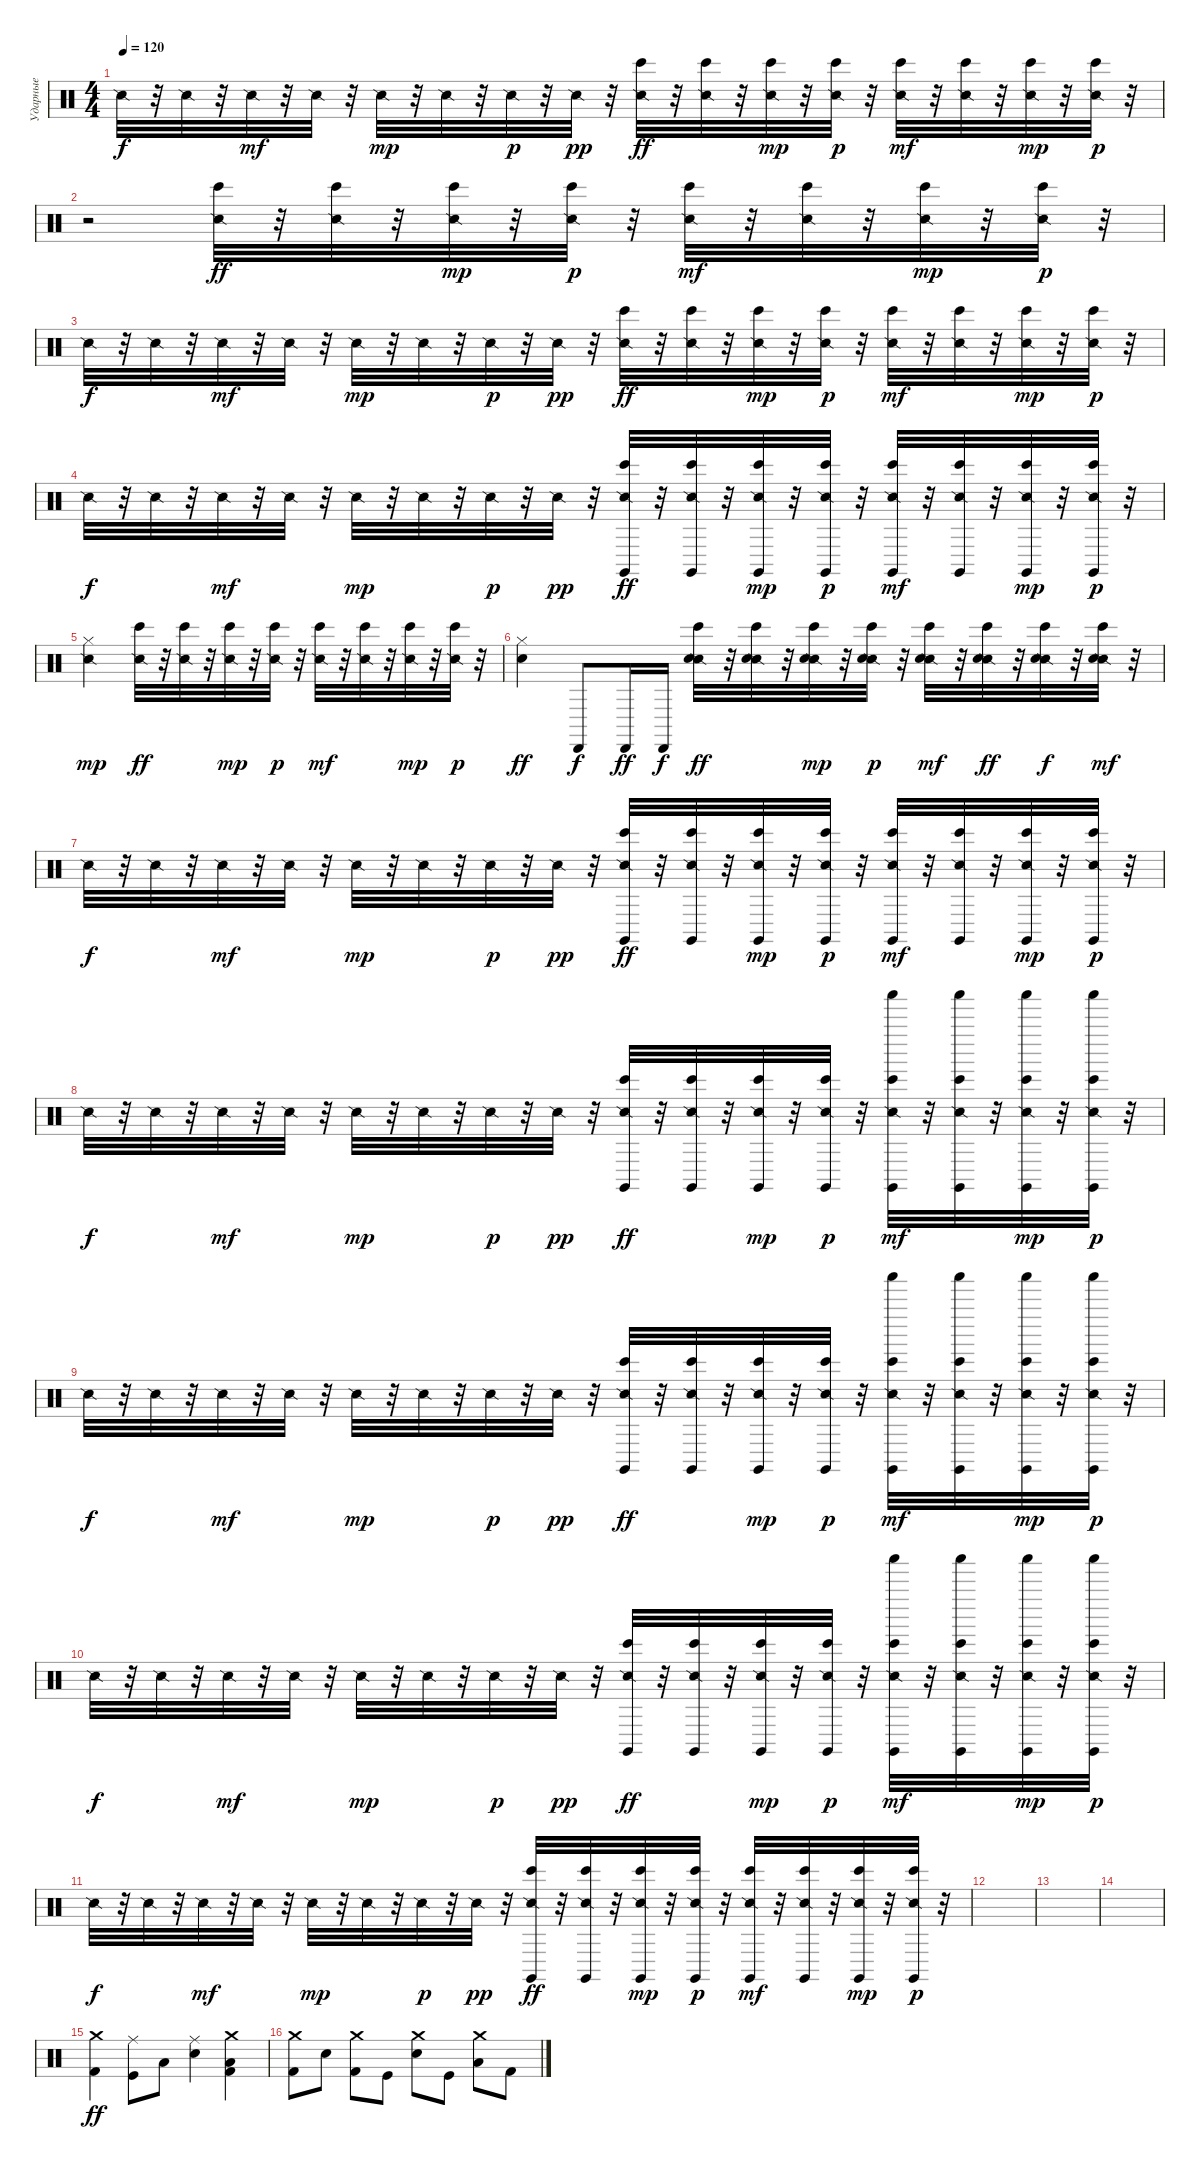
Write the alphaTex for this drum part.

\track ("Ударные" "Ударные") {instrument percussion}
\staff {score}
\articulation defaults
\ts (4 4)
\tempo 120
\clef neutral
\ks c "Snare (side stick) 2".32{dy f}
r.32 "Snare (side stick) 2".32 r.32 "Snare (side stick) 2".32{dy mf} r.32 "Snare (side stick) 2".32 r.32 "Snare (side stick) 2".32{dy mp} r.32 "Snare (side stick) 2".32 r.32 "Snare (side stick) 2".32{dy p} r.32 "Snare (side stick) 2".32{dy pp} r.32 ("Snare (side stick) 2" "Bongo High (hit)").32{dy ff} r.32 ("Snare (side stick) 2" "Bongo High (hit)").32 r.32 ("Snare (side stick) 2" "Bongo High (hit)").32{dy mp} r.32 ("Snare (side stick) 2" "Bongo High (hit)").32{dy p} r.32 ("Snare (side stick) 2" "Bongo High (hit)").32{dy mf} r.32 ("Snare (side stick) 2" "Bongo High (hit)").32 r.32 ("Snare (side stick) 2" "Bongo High (hit)").32{dy mp} r.32 ("Snare (side stick) 2" "Bongo High (hit)").32{dy p} r.32 |
r.2 ("Snare (side stick) 2" "Bongo High (hit)").32{dy ff} r.32 ("Snare (side stick) 2" "Bongo High (hit)").32 r.32 ("Snare (side stick) 2" "Bongo High (hit)").32{dy mp} r.32 ("Snare (side stick) 2" "Bongo High (hit)").32{dy p} r.32 ("Snare (side stick) 2" "Bongo High (hit)").32{dy mf} r.32 ("Snare (side stick) 2" "Bongo High (hit)").32 r.32 ("Snare (side stick) 2" "Bongo High (hit)").32{dy mp} r.32 ("Snare (side stick) 2" "Bongo High (hit)").32{dy p} r.32 |
"Snare (side stick) 2".32{dy f} r.32 "Snare (side stick) 2".32 r.32 "Snare (side stick) 2".32{dy mf} r.32 "Snare (side stick) 2".32 r.32 "Snare (side stick) 2".32{dy mp} r.32 "Snare (side stick) 2".32 r.32 "Snare (side stick) 2".32{dy p} r.32 "Snare (side stick) 2".32{dy pp} r.32 ("Snare (side stick) 2" "Bongo High (hit)").32{dy ff} r.32 ("Snare (side stick) 2" "Bongo High (hit)").32 r.32 ("Snare (side stick) 2" "Bongo High (hit)").32{dy mp} r.32 ("Snare (side stick) 2" "Bongo High (hit)").32{dy p} r.32 ("Snare (side stick) 2" "Bongo High (hit)").32{dy mf} r.32 ("Snare (side stick) 2" "Bongo High (hit)").32 r.32 ("Snare (side stick) 2" "Bongo High (hit)").32{dy mp} r.32 ("Snare (side stick) 2" "Bongo High (hit)").32{dy p} r.32 |
"Snare (side stick) 2".32{dy f} r.32 "Snare (side stick) 2".32 r.32 "Snare (side stick) 2".32{dy mf} r.32 "Snare (side stick) 2".32 r.32 "Snare (side stick) 2".32{dy mp} r.32 "Snare (side stick) 2".32 r.32 "Snare (side stick) 2".32{dy p} r.32 "Snare (side stick) 2".32{dy pp} r.32 ("Claves (hit)" "Snare (side stick) 2" "Bongo High (hit)").32{dy ff} r.32 ("Claves (hit)" "Snare (side stick) 2" "Bongo High (hit)").32 r.32 ("Claves (hit)" "Snare (side stick) 2" "Bongo High (hit)").32{dy mp} r.32 ("Claves (hit)" "Snare (side stick) 2" "Bongo High (hit)").32{dy p} r.32 ("Claves (hit)" "Snare (side stick) 2" "Bongo High (hit)").32{dy mf} r.32 ("Claves (hit)" "Snare (side stick) 2" "Bongo High (hit)").32 r.32 ("Claves (hit)" "Snare (side stick) 2" "Bongo High (hit)").32{dy mp} r.32 ("Claves (hit)" "Snare (side stick) 2" "Bongo High (hit)").32{dy p} r.32 |
("Snare (side stick) 2" "Hi-Hat (closed)").2{dy mp} ("Snare (side stick) 2" "Bongo High (hit)").32{dy ff} r.32 ("Snare (side stick) 2" "Bongo High (hit)").32 r.32 ("Snare (side stick) 2" "Bongo High (hit)").32{dy mp} r.32 ("Snare (side stick) 2" "Bongo High (hit)").32{dy p} r.32 ("Snare (side stick) 2" "Bongo High (hit)").32{dy mf} r.32 ("Snare (side stick) 2" "Bongo High (hit)").32 r.32 ("Snare (side stick) 2" "Bongo High (hit)").32{dy mp} r.32 ("Snare (side stick) 2" "Bongo High (hit)").32{dy p} r.32 |
("Snare (hit)" "Hi-Hat (closed)").4{dy ff} "Cabasa (hit)".8{dy f} "Cabasa (hit)".16{dy ff} "Cabasa (hit)".16{dy f} ("Snare (side stick) 2" "Bongo High (hit)" "Hand Clap (hit)").32{dy ff} r.32 ("Snare (side stick) 2" "Bongo High (hit)" "Hand Clap (hit)").32 r.32 ("Snare (side stick) 2" "Bongo High (hit)" "Hand Clap (hit)").32{dy mp} r.32 ("Snare (side stick) 2" "Bongo High (hit)" "Hand Clap (hit)").32{dy p} r.32 ("Snare (side stick) 2" "Bongo High (hit)" "Hand Clap (hit)").32{dy mf} r.32 ("Snare (side stick) 2" "Bongo High (hit)" "Hand Clap (hit)").32{dy ff} r.32 ("Snare (side stick) 2" "Bongo High (hit)" "Hand Clap (hit)").32{dy f} r.32 ("Snare (side stick) 2" "Bongo High (hit)" "Hand Clap (hit)").32{dy mf} r.32 |
"Snare (side stick) 2".32{dy f} r.32 "Snare (side stick) 2".32 r.32 "Snare (side stick) 2".32{dy mf} r.32 "Snare (side stick) 2".32 r.32 "Snare (side stick) 2".32{dy mp} r.32 "Snare (side stick) 2".32 r.32 "Snare (side stick) 2".32{dy p} r.32 "Snare (side stick) 2".32{dy pp} r.32 ("Claves (hit)" "Snare (side stick) 2" "Bongo High (hit)").32{dy ff} r.32 ("Claves (hit)" "Snare (side stick) 2" "Bongo High (hit)").32 r.32 ("Claves (hit)" "Snare (side stick) 2" "Bongo High (hit)").32{dy mp} r.32 ("Claves (hit)" "Snare (side stick) 2" "Bongo High (hit)").32{dy p} r.32 ("Claves (hit)" "Snare (side stick) 2" "Bongo High (hit)").32{dy mf} r.32 ("Claves (hit)" "Snare (side stick) 2" "Bongo High (hit)").32 r.32 ("Claves (hit)" "Snare (side stick) 2" "Bongo High (hit)").32{dy mp} r.32 ("Claves (hit)" "Snare (side stick) 2" "Bongo High (hit)").32{dy p} r.32 |
"Snare (side stick) 2".32{dy f} r.32 "Snare (side stick) 2".32 r.32 "Snare (side stick) 2".32{dy mf} r.32 "Snare (side stick) 2".32 r.32 "Snare (side stick) 2".32{dy mp} r.32 "Snare (side stick) 2".32 r.32 "Snare (side stick) 2".32{dy p} r.32 "Snare (side stick) 2".32{dy pp} r.32 ("Claves (hit)" "Snare (side stick) 2" "Bongo High (hit)").32{dy ff} r.32 ("Claves (hit)" "Snare (side stick) 2" "Bongo High (hit)").32 r.32 ("Claves (hit)" "Snare (side stick) 2" "Bongo High (hit)").32{dy mp} r.32 ("Claves (hit)" "Snare (side stick) 2" "Bongo High (hit)").32{dy p} r.32 ("Shaker (hit)" "Claves (hit)" "Snare (side stick) 2" "Bongo High (hit)").32{dy mf} r.32 ("Shaker (hit)" "Claves (hit)" "Snare (side stick) 2" "Bongo High (hit)").32 r.32 ("Shaker (hit)" "Claves (hit)" "Snare (side stick) 2" "Bongo High (hit)").32{dy mp} r.32 ("Shaker (hit)" "Claves (hit)" "Snare (side stick) 2" "Bongo High (hit)").32{dy p} r.32 |
"Snare (side stick) 2".32{dy f} r.32 "Snare (side stick) 2".32 r.32 "Snare (side stick) 2".32{dy mf} r.32 "Snare (side stick) 2".32 r.32 "Snare (side stick) 2".32{dy mp} r.32 "Snare (side stick) 2".32 r.32 "Snare (side stick) 2".32{dy p} r.32 "Snare (side stick) 2".32{dy pp} r.32 ("Claves (hit)" "Snare (side stick) 2" "Bongo High (hit)").32{dy ff} r.32 ("Claves (hit)" "Snare (side stick) 2" "Bongo High (hit)").32 r.32 ("Claves (hit)" "Snare (side stick) 2" "Bongo High (hit)").32{dy mp} r.32 ("Claves (hit)" "Snare (side stick) 2" "Bongo High (hit)").32{dy p} r.32 ("Shaker (hit)" "Claves (hit)" "Snare (side stick) 2" "Bongo High (hit)").32{dy mf} r.32 ("Shaker (hit)" "Claves (hit)" "Snare (side stick) 2" "Bongo High (hit)").32 r.32 ("Shaker (hit)" "Claves (hit)" "Snare (side stick) 2" "Bongo High (hit)").32{dy mp} r.32 ("Shaker (hit)" "Claves (hit)" "Snare (side stick) 2" "Bongo High (hit)").32{dy p} r.32 |
"Snare (side stick) 2".32{dy f} r.32 "Snare (side stick) 2".32 r.32 "Snare (side stick) 2".32{dy mf} r.32 "Snare (side stick) 2".32 r.32 "Snare (side stick) 2".32{dy mp} r.32 "Snare (side stick) 2".32 r.32 "Snare (side stick) 2".32{dy p} r.32 "Snare (side stick) 2".32{dy pp} r.32 ("Claves (hit)" "Snare (side stick) 2" "Bongo High (hit)").32{dy ff} r.32 ("Claves (hit)" "Snare (side stick) 2" "Bongo High (hit)").32 r.32 ("Claves (hit)" "Snare (side stick) 2" "Bongo High (hit)").32{dy mp} r.32 ("Claves (hit)" "Snare (side stick) 2" "Bongo High (hit)").32{dy p} r.32 ("Shaker (hit)" "Claves (hit)" "Snare (side stick) 2" "Bongo High (hit)").32{dy mf} r.32 ("Shaker (hit)" "Claves (hit)" "Snare (side stick) 2" "Bongo High (hit)").32 r.32 ("Shaker (hit)" "Claves (hit)" "Snare (side stick) 2" "Bongo High (hit)").32{dy mp} r.32 ("Shaker (hit)" "Claves (hit)" "Snare (side stick) 2" "Bongo High (hit)").32{dy p} r.32 |
"Snare (side stick) 2".32{dy f} r.32 "Snare (side stick) 2".32 r.32 "Snare (side stick) 2".32{dy mf} r.32 "Snare (side stick) 2".32 r.32 "Snare (side stick) 2".32{dy mp} r.32 "Snare (side stick) 2".32 r.32 "Snare (side stick) 2".32{dy p} r.32 "Snare (side stick) 2".32{dy pp} r.32 ("Claves (hit)" "Snare (side stick) 2" "Bongo High (hit)").32{dy ff} r.32 ("Claves (hit)" "Snare (side stick) 2" "Bongo High (hit)").32 r.32 ("Claves (hit)" "Snare (side stick) 2" "Bongo High (hit)").32{dy mp} r.32 ("Claves (hit)" "Snare (side stick) 2" "Bongo High (hit)").32{dy p} r.32 ("Claves (hit)" "Snare (side stick) 2" "Bongo High (hit)").32{dy mf} r.32 ("Claves (hit)" "Snare (side stick) 2" "Bongo High (hit)").32 r.32 ("Claves (hit)" "Snare (side stick) 2" "Bongo High (hit)").32{dy mp} r.32 ("Claves (hit)" "Snare (side stick) 2" "Bongo High (hit)").32{dy p} r.32 |
|
|
|
("Crash medium (hit)" "Kick (hit) 2").4{dy ff} ("Ride (middle)" "Kick (hit)").8 "Low Floor Tom (hit)".8 ("Ride (middle)" "Snare (hit) 2").4 ("Crash medium (hit)" "Kick (hit) 2" "Low Floor Tom (hit)").4 |
("Crash medium (hit)" "Kick (hit) 2").8 "Snare (hit) 2".8 ("Crash medium (hit)" "Kick (hit) 2").8 "Kick (hit)".8 ("Crash medium (hit)" "Snare (hit) 2").8 "Kick (hit)".8 ("Crash medium (hit)" "Low Floor Tom (hit)").8 "Kick (hit) 2".8
